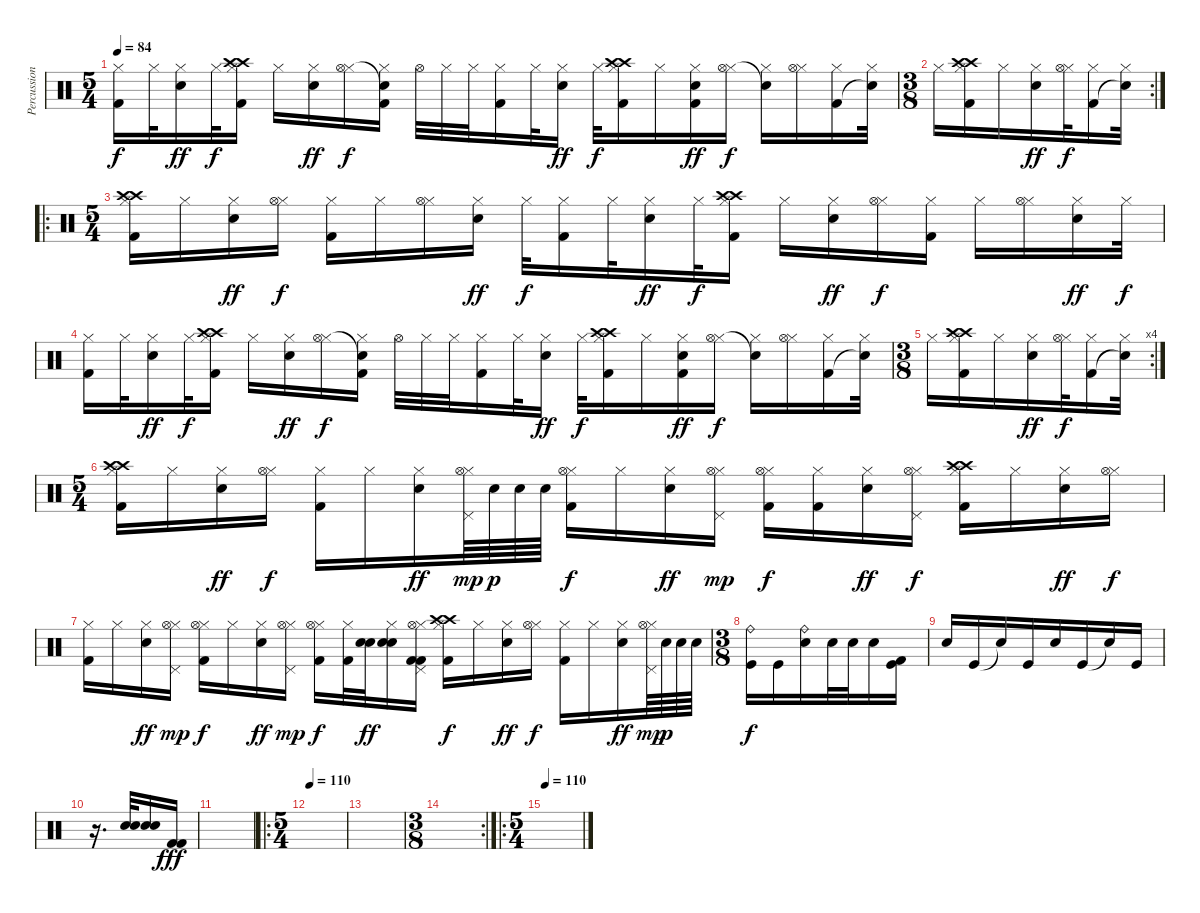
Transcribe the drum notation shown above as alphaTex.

\track ("Percussion" "Percussion") {instrument percussion}
\staff {score}
\articulation defaults
\ts (5 4)
\tempo 84
\clef neutral
\ks c
("Hi-Hat (closed)" "Kick (hit) 2").16{dy f} "Hi-Hat (closed)".32 ("Hi-Hat (closed)" "Electric Snare (hit)").16{dy ff} "Hi-Hat (closed)".32{dy f} ("Hi-Hat (closed)" "Crash high (hit)" "Crash high (hit)" "Kick (hit) 2").16 "Hi-Hat (closed)".16 ("Hi-Hat (closed)" "Electric Snare (hit)").16{dy ff} ("Hi-Hat (closed)" "Hi-Hat (open)").16{dy f} ("Hi-Hat (closed)" "Snare (hit)"{t} "Kick (hit) 2").16 "Hi-Hat (open)".32 "Hi-Hat (closed)".32 "Hi-Hat (closed)".32 ("Hi-Hat (closed)" "Kick (hit) 2").16 "Hi-Hat (closed)".32 ("Hi-Hat (closed)" "Electric Snare (hit)").16{dy ff} "Hi-Hat (closed)".32{dy f} ("Hi-Hat (closed)" "Crash high (hit)" "Crash high (hit)" "Kick (hit) 2").16 "Hi-Hat (closed)".16 ("Hi-Hat (closed)" "Electric Snare (hit)" "Kick (hit) 2").16{dy ff} ("Hi-Hat (closed)" "Hi-Hat (open)").16{dy f} ("Hi-Hat (closed)" "Snare (hit)"{t}).16 ("Hi-Hat (closed)" "Hi-Hat (open)").16 ("Hi-Hat (closed)" "Kick (hit) 2").16 ("Hi-Hat (closed)" "Snare (hit)"{t}).32 |
\rc 2
\ts (3 8)
"Hi-Hat (closed)".16 ("Hi-Hat (closed)" "Crash high (hit)" "Crash high (hit)" "Kick (hit) 2").16 "Hi-Hat (closed)".16 ("Hi-Hat (closed)" "Electric Snare (hit)").16{dy ff} ("Hi-Hat (closed)" "Hi-Hat (open)").32{dy f} ("Hi-Hat (closed)" "Kick (hit) 2").16 ("Hi-Hat (closed)" "Snare (hit)"{t}).32 |
\ro
\ts (5 4)
("Hi-Hat (closed)" "Crash high (hit)" "Crash high (hit)" "Kick (hit) 2").16 "Hi-Hat (closed)".16 ("Hi-Hat (closed)" "Electric Snare (hit)").16{dy ff} ("Hi-Hat (closed)" "Hi-Hat (open)").16{dy f} ("Hi-Hat (closed)" "Kick (hit) 2").16 "Hi-Hat (closed)".16 ("Hi-Hat (closed)" "Hi-Hat (open)").16 ("Hi-Hat (closed)" "Electric Snare (hit)").16{dy ff} "Hi-Hat (closed)".32{dy f} ("Hi-Hat (closed)" "Kick (hit) 2").16 "Hi-Hat (closed)".32 ("Hi-Hat (closed)" "Electric Snare (hit)").16{dy ff} "Hi-Hat (closed)".32{dy f} ("Hi-Hat (closed)" "Crash high (hit)" "Crash high (hit)" "Kick (hit) 2").16 "Hi-Hat (closed)".16 ("Hi-Hat (closed)" "Electric Snare (hit)").16{dy ff} ("Hi-Hat (closed)" "Hi-Hat (open)").16{dy f} ("Hi-Hat (closed)" "Kick (hit) 2").16 "Hi-Hat (closed)".16 ("Hi-Hat (closed)" "Hi-Hat (open)").16 ("Hi-Hat (closed)" "Electric Snare (hit)").16{dy ff} "Hi-Hat (closed)".32{dy f} |
("Hi-Hat (closed)" "Kick (hit) 2").16 "Hi-Hat (closed)".32 ("Hi-Hat (closed)" "Electric Snare (hit)").16{dy ff} "Hi-Hat (closed)".32{dy f} ("Hi-Hat (closed)" "Crash high (hit)" "Crash high (hit)" "Kick (hit) 2").16 "Hi-Hat (closed)".16 ("Hi-Hat (closed)" "Electric Snare (hit)").16{dy ff} ("Hi-Hat (closed)" "Hi-Hat (open)").16{dy f} ("Hi-Hat (closed)" "Snare (hit)"{t} "Kick (hit) 2").16 "Hi-Hat (open)".32 "Hi-Hat (closed)".32 "Hi-Hat (closed)".32 ("Hi-Hat (closed)" "Kick (hit) 2").16 "Hi-Hat (closed)".32 ("Hi-Hat (closed)" "Electric Snare (hit)").16{dy ff} "Hi-Hat (closed)".32{dy f} ("Hi-Hat (closed)" "Crash high (hit)" "Crash high (hit)" "Kick (hit) 2").16 "Hi-Hat (closed)".16 ("Hi-Hat (closed)" "Electric Snare (hit)" "Kick (hit) 2").16{dy ff} ("Hi-Hat (closed)" "Hi-Hat (open)").16{dy f} ("Hi-Hat (closed)" "Snare (hit)"{t}).16 ("Hi-Hat (closed)" "Hi-Hat (open)").16 ("Hi-Hat (closed)" "Kick (hit) 2").16 ("Hi-Hat (closed)" "Snare (hit)"{t}).32 |
\rc 4
\ts (3 8)
"Hi-Hat (closed)".16 ("Hi-Hat (closed)" "Crash high (hit)" "Crash high (hit)" "Kick (hit) 2").16 "Hi-Hat (closed)".16 ("Hi-Hat (closed)" "Electric Snare (hit)").16{dy ff} ("Hi-Hat (closed)" "Hi-Hat (open)").32{dy f} ("Hi-Hat (closed)" "Kick (hit) 2").16 ("Hi-Hat (closed)" "Snare (hit)"{t}).32 |
\ts (5 4)
("Hi-Hat (closed)" "Crash high (hit)" "Crash high (hit)" "Kick (hit) 2").16{volume 7} "Hi-Hat (closed)".16 ("Hi-Hat (closed)" "Electric Snare (hit)").16{dy ff} ("Hi-Hat (closed)" "Hi-Hat (open)").16{dy f} ("Hi-Hat (closed)" "Kick (hit) 2").16 "Hi-Hat (closed)".16 ("Hi-Hat (closed)" "Electric Snare (hit)").16{dy ff} ("Hi-Hat (closed)" "Hi-Hat (open)" "Pedal Hi-Hat (hit)").64{dy mp} "Snare (hit) 2".64{dy p} "Snare (hit) 2".64 "Snare (hit) 2".64 ("Hi-Hat (closed)" "Hi-Hat (open)" "Kick (hit) 2").16{dy f} "Hi-Hat (closed)".16 ("Hi-Hat (closed)" "Electric Snare (hit)").16{dy ff} ("Hi-Hat (closed)" "Hi-Hat (open)" "Pedal Hi-Hat (hit)").16{dy mp} ("Hi-Hat (closed)" "Hi-Hat (open)" "Kick (hit) 2").16{dy f} ("Hi-Hat (closed)" "Kick (hit) 2").16 ("Hi-Hat (closed)" "Electric Snare (hit)").16{dy ff} ("Hi-Hat (closed)" "Hi-Hat (open)" "Pedal Hi-Hat (hit)").16{dy f} ("Hi-Hat (closed)" "Crash high (hit)" "Crash high (hit)" "Kick (hit) 2").16 "Hi-Hat (closed)".16 ("Hi-Hat (closed)" "Electric Snare (hit)").16{dy ff} ("Hi-Hat (closed)" "Hi-Hat (open)").16{dy f} |
("Hi-Hat (closed)" "Kick (hit) 2").16 "Hi-Hat (closed)".16 ("Hi-Hat (closed)" "Electric Snare (hit)").16{dy ff} ("Hi-Hat (closed)" "Hi-Hat (open)" "Pedal Hi-Hat (hit)").16{dy mp} ("Hi-Hat (closed)" "Hi-Hat (open)" "Kick (hit) 2").16{dy f} "Hi-Hat (closed)".16 ("Hi-Hat (closed)" "Electric Snare (hit)").16{dy ff} ("Hi-Hat (closed)" "Hi-Hat (open)" "Pedal Hi-Hat (hit)").16{dy mp} ("Hi-Hat (closed)" "Hi-Hat (open)" "Kick (hit) 2").16{dy f} ("Hi-Hat (closed)" "Kick (hit) 2").32 ("Electric Snare (hit)" "Electric Snare (hit)").32{dy ff} ("Hi-Hat (closed)" "Electric Snare (hit)" "Electric Snare (hit)").16 ("Hi-Hat (closed)" "Hi-Hat (open)" "Pedal Hi-Hat (hit)" "Kick (hit) 2" "Kick (hit) 2").16 ("Hi-Hat (closed)" "Crash high (hit)" "Crash high (hit)" "Kick (hit) 2").16{dy f} "Hi-Hat (closed)".16 ("Hi-Hat (closed)" "Electric Snare (hit)").16{dy ff} ("Hi-Hat (closed)" "Hi-Hat (open)").16{dy f} ("Hi-Hat (closed)" "Kick (hit) 2").16 "Hi-Hat (closed)".16 ("Hi-Hat (closed)" "Electric Snare (hit)").16{dy ff} ("Hi-Hat (closed)" "Hi-Hat (open)" "Pedal Hi-Hat (hit)").64{dy mp} "Snare (hit) 2".64{dy p} "Snare (hit) 2".64 "Snare (hit) 2".64 |
\ts (3 8)
("Ride (bell)" "Kick (hit)").16{dy f} "Kick (hit)".16 ("Electric Snare (hit)" "Ride (bell)").16 "Electric Snare (hit)".32 "Electric Snare (hit)".32 "Snare (hit) 2".16 ("Kick (hit) 2" "Kick (hit)").16 |
"Electric Snare (hit)".16 "Kick (hit)".16 "Snare (hit)"{t}.16 "Kick (hit)".16 "Electric Snare (hit)".16 "Kick (hit)".16 "Snare (hit)"{t}.16 "Kick (hit)".16 |
r.16{d} ("Electric Snare (hit)" "Electric Snare (hit)").32 ("Electric Snare (hit)" "Electric Snare (hit)").16 ("Kick (hit) 2" "Kick (hit) 2").16{dy fff} |
|
\ro
\ts (5 4)
\tempo 110
|
|
\rc 2
\ts (3 8)
|
\ro
\ts (5 4)
\tempo 110
